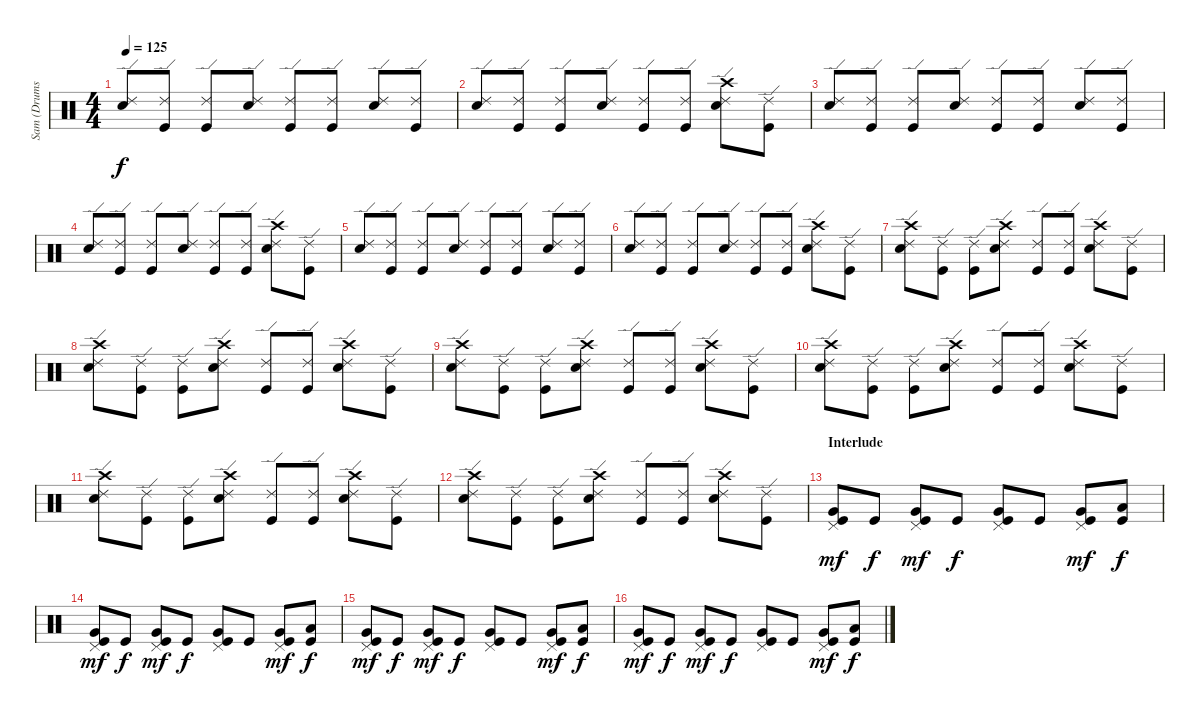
\track ("Sam (Drums)" "Sam (Drums") {instrument percussion}
\staff {score}
\articulation defaults
\ts (4 4)
\tempo 125
\clef neutral
\ks c
("Ride (edge) 2" "Snare (hit) 2").8{dy f} ("Ride (edge) 2" "Kick (hit)").8 ("Ride (edge) 2" "Kick (hit)").8 ("Ride (edge) 2" "Snare (hit) 2").8 ("Ride (edge) 2" "Kick (hit)").8 ("Ride (edge) 2" "Kick (hit)").8 ("Ride (edge) 2" "Snare (hit) 2").8 ("Ride (edge) 2" "Kick (hit)").8 |
("Ride (edge) 2" "Snare (hit) 2").8 ("Ride (edge) 2" "Kick (hit)").8 ("Ride (edge) 2" "Kick (hit)").8 ("Ride (edge) 2" "Snare (hit) 2").8 ("Ride (edge) 2" "Kick (hit)").8 ("Ride (edge) 2" "Kick (hit)").8 ("Crash high (hit)" "Ride (edge) 2" "Snare (hit) 2").8 ("Ride (edge) 2" "Kick (hit)").8 |
("Ride (edge) 2" "Snare (hit) 2").8 ("Ride (edge) 2" "Kick (hit)").8 ("Ride (edge) 2" "Kick (hit)").8 ("Ride (edge) 2" "Snare (hit) 2").8 ("Ride (edge) 2" "Kick (hit)").8 ("Ride (edge) 2" "Kick (hit)").8 ("Ride (edge) 2" "Snare (hit) 2").8 ("Ride (edge) 2" "Kick (hit)").8 |
("Ride (edge) 2" "Snare (hit) 2").8 ("Ride (edge) 2" "Kick (hit)").8 ("Ride (edge) 2" "Kick (hit)").8 ("Ride (edge) 2" "Snare (hit) 2").8 ("Ride (edge) 2" "Kick (hit)").8 ("Ride (edge) 2" "Kick (hit)").8 ("Crash high (hit)" "Ride (edge) 2" "Snare (hit) 2").8 ("Ride (edge) 2" "Kick (hit)").8 |
("Ride (edge) 2" "Snare (hit) 2").8 ("Ride (edge) 2" "Kick (hit)").8 ("Ride (edge) 2" "Kick (hit)").8 ("Ride (edge) 2" "Snare (hit) 2").8 ("Ride (edge) 2" "Kick (hit)").8 ("Ride (edge) 2" "Kick (hit)").8 ("Ride (edge) 2" "Snare (hit) 2").8 ("Ride (edge) 2" "Kick (hit)").8 |
("Ride (edge) 2" "Snare (hit) 2").8 ("Ride (edge) 2" "Kick (hit)").8 ("Ride (edge) 2" "Kick (hit)").8 ("Ride (edge) 2" "Snare (hit) 2").8 ("Ride (edge) 2" "Kick (hit)").8 ("Ride (edge) 2" "Kick (hit)").8 ("Crash high (hit)" "Ride (edge) 2" "Snare (hit) 2").8 ("Ride (edge) 2" "Kick (hit)").8 |
("Crash high (hit)" "Ride (edge) 2" "Snare (hit) 2").8 ("Ride (edge) 2" "Kick (hit)").8 ("Ride (edge) 2" "Kick (hit)").8 ("Crash high (hit)" "Ride (edge) 2" "Snare (hit) 2").8 ("Ride (edge) 2" "Kick (hit)").8 ("Ride (edge) 2" "Kick (hit)").8 ("Crash high (hit)" "Ride (edge) 2" "Snare (hit) 2").8 ("Ride (edge) 2" "Kick (hit)").8 |
("Crash high (hit)" "Ride (edge) 2" "Snare (hit) 2").8 ("Ride (edge) 2" "Kick (hit)").8 ("Ride (edge) 2" "Kick (hit)").8 ("Crash high (hit)" "Ride (edge) 2" "Snare (hit) 2").8 ("Ride (edge) 2" "Kick (hit)").8 ("Ride (edge) 2" "Kick (hit)").8 ("Crash high (hit)" "Ride (edge) 2" "Snare (hit) 2").8 ("Ride (edge) 2" "Kick (hit)").8 |
("Crash high (hit)" "Ride (edge) 2" "Snare (hit) 2").8 ("Ride (edge) 2" "Kick (hit)").8 ("Ride (edge) 2" "Kick (hit)").8 ("Crash high (hit)" "Ride (edge) 2" "Snare (hit) 2").8 ("Ride (edge) 2" "Kick (hit)").8 ("Ride (edge) 2" "Kick (hit)").8 ("Crash high (hit)" "Ride (edge) 2" "Snare (hit) 2").8 ("Ride (edge) 2" "Kick (hit)").8 |
("Crash high (hit)" "Ride (edge) 2" "Snare (hit) 2").8 ("Ride (edge) 2" "Kick (hit)").8 ("Ride (edge) 2" "Kick (hit)").8 ("Crash high (hit)" "Ride (edge) 2" "Snare (hit) 2").8 ("Ride (edge) 2" "Kick (hit)").8 ("Ride (edge) 2" "Kick (hit)").8 ("Crash high (hit)" "Ride (edge) 2" "Snare (hit) 2").8 ("Ride (edge) 2" "Kick (hit)").8 |
("Crash high (hit)" "Ride (edge) 2" "Snare (hit) 2").8 ("Ride (edge) 2" "Kick (hit)").8 ("Ride (edge) 2" "Kick (hit)").8 ("Crash high (hit)" "Ride (edge) 2" "Snare (hit) 2").8 ("Ride (edge) 2" "Kick (hit)").8 ("Ride (edge) 2" "Kick (hit)").8 ("Crash high (hit)" "Ride (edge) 2" "Snare (hit) 2").8 ("Ride (edge) 2" "Kick (hit)").8 |
("Crash high (hit)" "Ride (edge) 2" "Snare (hit) 2").8 ("Ride (edge) 2" "Kick (hit)").8 ("Ride (edge) 2" "Kick (hit)").8 ("Crash high (hit)" "Ride (edge) 2" "Snare (hit) 2").8 ("Ride (edge) 2" "Kick (hit)").8 ("Ride (edge) 2" "Kick (hit)").8 ("Crash high (hit)" "Ride (edge) 2" "Snare (hit) 2").8 ("Ride (edge) 2" "Kick (hit)").8 |
\section ("" "Interlude")
("Pedal Hi-Hat (hit)" "Very Low Tom (hit)" "Kick (hit)").8{dy mf} "Kick (hit)".8{dy f} ("Pedal Hi-Hat (hit)" "Very Low Tom (hit)" "Kick (hit)").8{dy mf} "Kick (hit)".8{dy f} ("Pedal Hi-Hat (hit)" "Very Low Tom (hit)" "Kick (hit)").8 "Kick (hit)".8 ("Pedal Hi-Hat (hit)" "Very Low Tom (hit)" "Kick (hit)").8{dy mf} ("Low Floor Tom (hit)" "Kick (hit)").8{dy f} |
("Pedal Hi-Hat (hit)" "Very Low Tom (hit)" "Kick (hit)").8{dy mf} "Kick (hit)".8{dy f} ("Pedal Hi-Hat (hit)" "Very Low Tom (hit)" "Kick (hit)").8{dy mf} "Kick (hit)".8{dy f} ("Pedal Hi-Hat (hit)" "Very Low Tom (hit)" "Kick (hit)").8 "Kick (hit)".8 ("Pedal Hi-Hat (hit)" "Very Low Tom (hit)" "Kick (hit)").8{dy mf} ("Low Floor Tom (hit)" "Kick (hit)").8{dy f} |
("Pedal Hi-Hat (hit)" "Very Low Tom (hit)" "Kick (hit)").8{dy mf} "Kick (hit)".8{dy f} ("Pedal Hi-Hat (hit)" "Very Low Tom (hit)" "Kick (hit)").8{dy mf} "Kick (hit)".8{dy f} ("Pedal Hi-Hat (hit)" "Very Low Tom (hit)" "Kick (hit)").8 "Kick (hit)".8 ("Pedal Hi-Hat (hit)" "Very Low Tom (hit)" "Kick (hit)").8{dy mf} ("Low Floor Tom (hit)" "Kick (hit)").8{dy f} |
("Pedal Hi-Hat (hit)" "Very Low Tom (hit)" "Kick (hit)").8{dy mf} "Kick (hit)".8{dy f} ("Pedal Hi-Hat (hit)" "Very Low Tom (hit)" "Kick (hit)").8{dy mf} "Kick (hit)".8{dy f} ("Pedal Hi-Hat (hit)" "Very Low Tom (hit)" "Kick (hit)").8 "Kick (hit)".8 ("Pedal Hi-Hat (hit)" "Very Low Tom (hit)" "Kick (hit)").8{dy mf} ("Low Floor Tom (hit)" "Kick (hit)").8{dy f}
